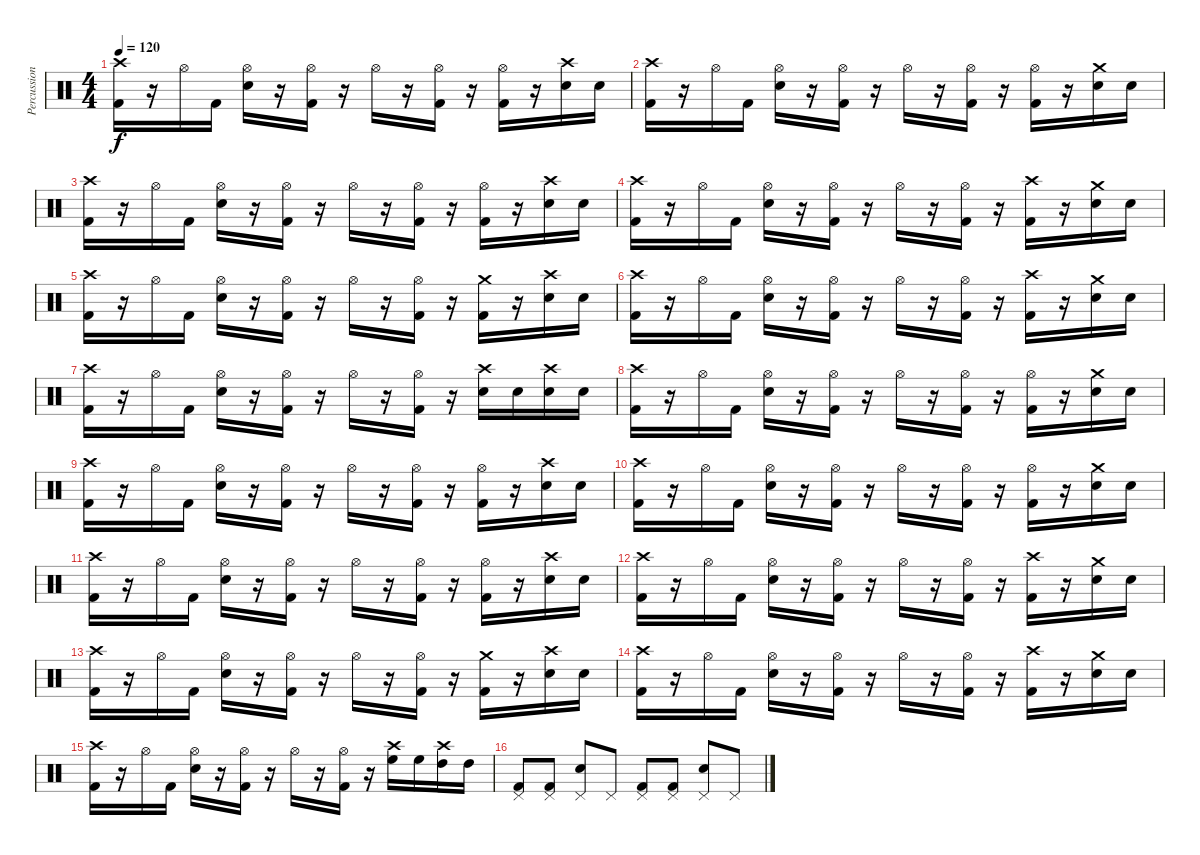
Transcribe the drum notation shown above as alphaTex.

\track ("Percussion" "Percussion") {instrument percussion}
\staff {score}
\articulation defaults
\ts (4 4)
\tempo 120
\clef neutral
\ks c
("Crash high (hit)" "Kick (hit) 2").16{dy f} r.16 "Hi-Hat (open)".16 "Kick (hit) 2".16 ("Hi-Hat (open)" "Snare (hit) 2").16 r.16 ("Hi-Hat (open)" "Kick (hit) 2").16 r.16 "Hi-Hat (open)".16 r.16 ("Hi-Hat (open)" "Kick (hit) 2").16 r.16 ("Hi-Hat (open)" "Kick (hit) 2").16 r.16 ("Crash high (hit)" "Snare (hit) 2").16 "Snare (hit) 2".16 |
("Crash high (hit)" "Kick (hit) 2").16 r.16 "Hi-Hat (open)".16 "Kick (hit) 2".16 ("Hi-Hat (open)" "Snare (hit) 2").16 r.16 ("Hi-Hat (open)" "Kick (hit) 2").16 r.16 "Hi-Hat (open)".16 r.16 ("Hi-Hat (open)" "Kick (hit) 2").16 r.16 ("Hi-Hat (open)" "Kick (hit) 2").16 r.16 ("Crash medium (hit)" "Snare (hit) 2").16 "Snare (hit) 2".16 |
("Crash high (hit)" "Kick (hit) 2").16 r.16 "Hi-Hat (open)".16 "Kick (hit) 2".16 ("Hi-Hat (open)" "Snare (hit) 2").16 r.16 ("Hi-Hat (open)" "Kick (hit) 2").16 r.16 "Hi-Hat (open)".16 r.16 ("Hi-Hat (open)" "Kick (hit) 2").16 r.16 ("Hi-Hat (open)" "Kick (hit) 2").16 r.16 ("Crash high (hit)" "Snare (hit) 2").16 "Snare (hit) 2".16 |
("Crash high (hit)" "Kick (hit) 2").16 r.16 "Hi-Hat (open)".16 "Kick (hit) 2".16 ("Hi-Hat (open)" "Snare (hit) 2").16 r.16 ("Hi-Hat (open)" "Kick (hit) 2").16 r.16 "Hi-Hat (open)".16 r.16 ("Hi-Hat (open)" "Kick (hit) 2").16 r.16 ("Crash high (hit)" "Kick (hit) 2").16 r.16 ("Crash medium (hit)" "Snare (hit) 2").16 "Snare (hit) 2".16 |
("Crash high (hit)" "Kick (hit) 2").16 r.16 "Hi-Hat (open)".16 "Kick (hit) 2".16 ("Hi-Hat (open)" "Snare (hit) 2").16 r.16 ("Hi-Hat (open)" "Kick (hit) 2").16 r.16 "Hi-Hat (open)".16 r.16 ("Hi-Hat (open)" "Kick (hit) 2").16 r.16 ("Crash medium (hit)" "Kick (hit) 2").16 r.16 ("Crash high (hit)" "Snare (hit) 2").16 "Snare (hit) 2".16 |
("Crash high (hit)" "Kick (hit) 2").16 r.16 "Hi-Hat (open)".16 "Kick (hit) 2".16 ("Hi-Hat (open)" "Snare (hit) 2").16 r.16 ("Hi-Hat (open)" "Kick (hit) 2").16 r.16 "Hi-Hat (open)".16 r.16 ("Hi-Hat (open)" "Kick (hit) 2").16 r.16 ("Crash high (hit)" "Kick (hit) 2").16 r.16 ("Crash medium (hit)" "Snare (hit) 2").16 "Snare (hit) 2".16 |
("Crash high (hit)" "Kick (hit) 2").16 r.16 "Hi-Hat (open)".16 "Kick (hit) 2".16 ("Hi-Hat (open)" "Snare (hit) 2").16 r.16 ("Hi-Hat (open)" "Kick (hit) 2").16 r.16 "Hi-Hat (open)".16 r.16 ("Hi-Hat (open)" "Kick (hit) 2").16 r.16 ("Crash high (hit)" "Snare (hit) 2").16 "Snare (hit) 2".16 ("Crash high (hit)" "Snare (hit) 2").16 "Snare (hit) 2".16 |
("Crash high (hit)" "Kick (hit) 2").16 r.16 "Hi-Hat (open)".16 "Kick (hit) 2".16 ("Hi-Hat (open)" "Snare (hit) 2").16 r.16 ("Hi-Hat (open)" "Kick (hit) 2").16 r.16 "Hi-Hat (open)".16 r.16 ("Hi-Hat (open)" "Kick (hit) 2").16 r.16 ("Hi-Hat (open)" "Kick (hit) 2").16 r.16 ("Crash medium (hit)" "Snare (hit) 2").16 "Snare (hit) 2".16 |
("Crash high (hit)" "Kick (hit) 2").16 r.16 "Hi-Hat (open)".16 "Kick (hit) 2".16 ("Hi-Hat (open)" "Snare (hit) 2").16 r.16 ("Hi-Hat (open)" "Kick (hit) 2").16 r.16 "Hi-Hat (open)".16 r.16 ("Hi-Hat (open)" "Kick (hit) 2").16 r.16 ("Hi-Hat (open)" "Kick (hit) 2").16 r.16 ("Crash high (hit)" "Snare (hit) 2").16 "Snare (hit) 2".16 |
("Crash high (hit)" "Kick (hit) 2").16 r.16 "Hi-Hat (open)".16 "Kick (hit) 2".16 ("Hi-Hat (open)" "Snare (hit) 2").16 r.16 ("Hi-Hat (open)" "Kick (hit) 2").16 r.16 "Hi-Hat (open)".16 r.16 ("Hi-Hat (open)" "Kick (hit) 2").16 r.16 ("Hi-Hat (open)" "Kick (hit) 2").16 r.16 ("Crash medium (hit)" "Snare (hit) 2").16 "Snare (hit) 2".16 |
("Crash high (hit)" "Kick (hit) 2").16 r.16 "Hi-Hat (open)".16 "Kick (hit) 2".16 ("Hi-Hat (open)" "Snare (hit) 2").16 r.16 ("Hi-Hat (open)" "Kick (hit) 2").16 r.16 "Hi-Hat (open)".16 r.16 ("Hi-Hat (open)" "Kick (hit) 2").16 r.16 ("Hi-Hat (open)" "Kick (hit) 2").16 r.16 ("Crash high (hit)" "Snare (hit) 2").16 "Snare (hit) 2".16 |
("Crash high (hit)" "Kick (hit) 2").16 r.16 "Hi-Hat (open)".16 "Kick (hit) 2".16 ("Hi-Hat (open)" "Snare (hit) 2").16 r.16 ("Hi-Hat (open)" "Kick (hit) 2").16 r.16 "Hi-Hat (open)".16 r.16 ("Hi-Hat (open)" "Kick (hit) 2").16 r.16 ("Crash high (hit)" "Kick (hit) 2").16 r.16 ("Crash medium (hit)" "Snare (hit) 2").16 "Snare (hit) 2".16 |
("Crash high (hit)" "Kick (hit) 2").16 r.16 "Hi-Hat (open)".16 "Kick (hit) 2".16 ("Hi-Hat (open)" "Snare (hit) 2").16 r.16 ("Hi-Hat (open)" "Kick (hit) 2").16 r.16 "Hi-Hat (open)".16 r.16 ("Hi-Hat (open)" "Kick (hit) 2").16 r.16 ("Crash medium (hit)" "Kick (hit) 2").16 r.16 ("Crash high (hit)" "Snare (hit) 2").16 "Snare (hit) 2".16 |
("Crash high (hit)" "Kick (hit) 2").16 r.16 "Hi-Hat (open)".16 "Kick (hit) 2".16 ("Hi-Hat (open)" "Snare (hit) 2").16 r.16 ("Hi-Hat (open)" "Kick (hit) 2").16 r.16 "Hi-Hat (open)".16 r.16 ("Hi-Hat (open)" "Kick (hit) 2").16 r.16 ("Crash high (hit)" "Kick (hit) 2").16 r.16 ("Crash medium (hit)" "Snare (hit) 2").16 "Snare (hit) 2".16 |
("Crash high (hit)" "Kick (hit) 2").16 r.16 "Hi-Hat (open)".16 "Kick (hit) 2".16 ("Hi-Hat (open)" "Snare (hit) 2").16 r.16 ("Hi-Hat (open)" "Kick (hit) 2").16 r.16 "Hi-Hat (open)".16 r.16 ("Hi-Hat (open)" "Kick (hit) 2").16 r.16 ("Crash high (hit)" "High Floor Tom (hit)").16 "High Floor Tom (hit)".16 ("Crash high (hit)" "High Tom (hit)").16 "High Tom (hit)".16 |
("Pedal Hi-Hat (hit)" "Kick (hit) 2").8 ("Pedal Hi-Hat (hit)" "Kick (hit) 2").8 ("Pedal Hi-Hat (hit)" "Snare (hit) 2").8 "Pedal Hi-Hat (hit)".8 ("Pedal Hi-Hat (hit)" "Kick (hit) 2").8 ("Pedal Hi-Hat (hit)" "Kick (hit) 2").8 ("Pedal Hi-Hat (hit)" "Snare (hit) 2").8 "Pedal Hi-Hat (hit)".8
